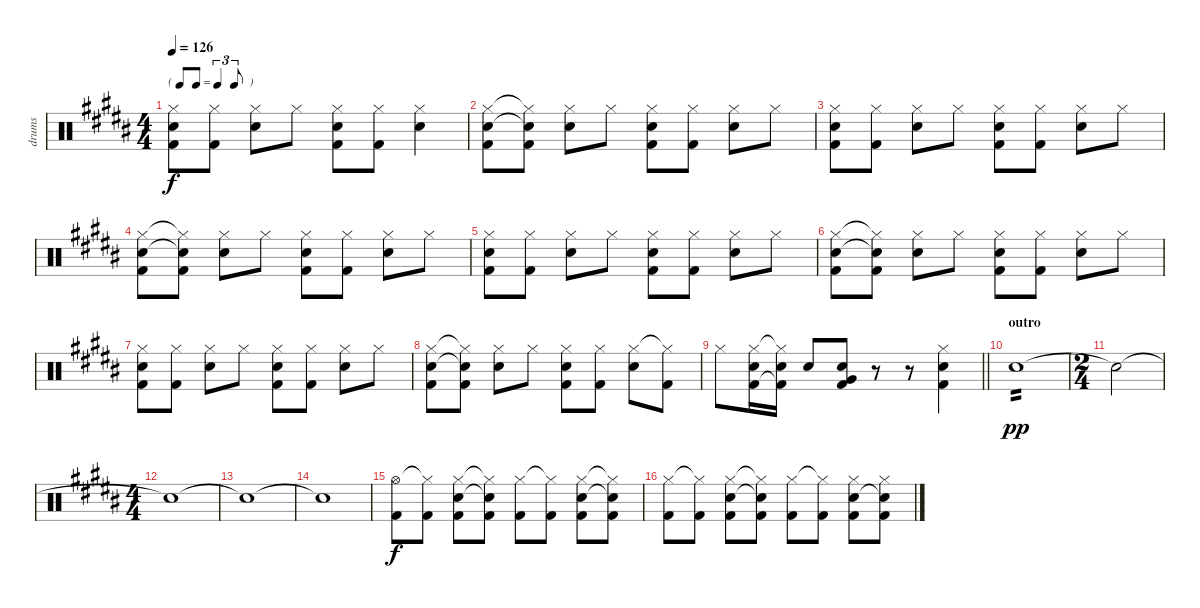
\track ("drums" "drums") {instrument percussion}
\staff {score}
\articulation defaults
\ts (4 4)
\tf triplet8th
\tempo 126
\clef neutral
\ks b
("Hi-Hat (closed)" "Electric Snare (hit)" "Kick (hit) 2").8{dy f} ("Hi-Hat (closed)" "Kick (hit) 2").8 ("Hi-Hat (closed)" "Electric Snare (hit)").8 "Hi-Hat (closed)".8 ("Hi-Hat (closed)" "Electric Snare (hit)" "Kick (hit) 2").8 ("Hi-Hat (closed)" "Kick (hit) 2").8 ("Hi-Hat (closed)" "Electric Snare (hit)").4 |
("Hi-Hat (closed)" "Electric Snare (hit)" "Kick (hit) 2").8 ("Hi-Hat (closed)"{t} "Snare (hit)"{t} "Kick (hit) 2").8 ("Hi-Hat (closed)" "Electric Snare (hit)").8 "Hi-Hat (closed)".8 ("Hi-Hat (closed)" "Electric Snare (hit)" "Kick (hit) 2").8 ("Hi-Hat (closed)" "Kick (hit) 2").8 ("Hi-Hat (closed)" "Electric Snare (hit)").8 "Hi-Hat (closed)".8 |
("Hi-Hat (closed)" "Electric Snare (hit)" "Kick (hit) 2").8 ("Hi-Hat (closed)" "Kick (hit) 2").8 ("Hi-Hat (closed)" "Electric Snare (hit)").8 "Hi-Hat (closed)".8 ("Hi-Hat (closed)" "Electric Snare (hit)" "Kick (hit) 2").8 ("Hi-Hat (closed)" "Kick (hit) 2").8 ("Hi-Hat (closed)" "Electric Snare (hit)").8 "Hi-Hat (closed)".8 |
("Hi-Hat (closed)" "Electric Snare (hit)" "Kick (hit) 2").8 ("Hi-Hat (closed)"{t} "Snare (hit)"{t} "Kick (hit) 2").8 ("Hi-Hat (closed)" "Electric Snare (hit)").8 "Hi-Hat (closed)".8 ("Hi-Hat (closed)" "Electric Snare (hit)" "Kick (hit) 2").8 ("Hi-Hat (closed)" "Kick (hit) 2").8 ("Hi-Hat (closed)" "Electric Snare (hit)").8 "Hi-Hat (closed)".8 |
("Hi-Hat (closed)" "Electric Snare (hit)" "Kick (hit) 2").8 ("Hi-Hat (closed)" "Kick (hit) 2").8 ("Hi-Hat (closed)" "Electric Snare (hit)").8 "Hi-Hat (closed)".8 ("Hi-Hat (closed)" "Electric Snare (hit)" "Kick (hit) 2").8 ("Hi-Hat (closed)" "Kick (hit) 2").8 ("Hi-Hat (closed)" "Electric Snare (hit)").8 "Hi-Hat (closed)".8 |
("Hi-Hat (closed)" "Electric Snare (hit)" "Kick (hit) 2").8 ("Hi-Hat (closed)"{t} "Snare (hit)"{t} "Kick (hit) 2").8 ("Hi-Hat (closed)" "Electric Snare (hit)").8 "Hi-Hat (closed)".8 ("Hi-Hat (closed)" "Electric Snare (hit)" "Kick (hit) 2").8 ("Hi-Hat (closed)" "Kick (hit) 2").8 ("Hi-Hat (closed)" "Electric Snare (hit)").8 "Hi-Hat (closed)".8 |
("Hi-Hat (closed)" "Electric Snare (hit)" "Kick (hit) 2").8 ("Hi-Hat (closed)" "Kick (hit) 2").8 ("Hi-Hat (closed)" "Electric Snare (hit)").8 "Hi-Hat (closed)".8 ("Hi-Hat (closed)" "Electric Snare (hit)" "Kick (hit) 2").8 ("Hi-Hat (closed)" "Kick (hit) 2").8 ("Hi-Hat (closed)" "Electric Snare (hit)").8 "Hi-Hat (closed)".8 |
("Hi-Hat (closed)" "Electric Snare (hit)" "Kick (hit) 2").8 ("Hi-Hat (closed)"{t} "Snare (hit)"{t} "Kick (hit) 2").8 ("Hi-Hat (closed)" "Electric Snare (hit)").8 "Hi-Hat (closed)".8 ("Hi-Hat (closed)" "Electric Snare (hit)" "Kick (hit) 2").8 ("Hi-Hat (closed)" "Kick (hit) 2").8 ("Hi-Hat (closed)" "Electric Snare (hit)").8 ("Hi-Hat (closed)"{t} "Kick (hit) 2").8 |
\barLineRight lightlight "Hi-Hat (closed)".8
("Hi-Hat (closed)" "Electric Snare (hit)" "Kick (hit) 2").16 ("Hi-Hat (closed)"{t} "Electric Snare (hit)" "Kick (hit) 2"{t}).16 "Electric Snare (hit)".8 ("Electric Snare (hit)" "Very Low Tom (hit)" "Kick (hit) 2").8 r.8 r.8 ("Hi-Hat (closed)" "Electric Snare (hit)" "Kick (hit) 2").4 |
\section ("" "outro")
"Electric Snare (hit)".1{tp 2 dy pp} |
\ts (2 4)
"Electric Snare (hit)"{t}.2 |
\ts (4 4)
"Electric Snare (hit)"{t}.1 |
"Snare (hit)"{t}.1 |
"Snare (hit)"{t}.1 |
("Hi-Hat (open)" "Kick (hit) 2").8{dy f} ("Hi-Hat (closed)"{t} "Kick (hit) 2").8 ("Hi-Hat (closed)" "Electric Snare (hit)" "Kick (hit) 2").8 ("Hi-Hat (closed)"{t} "Snare (hit)"{t} "Kick (hit) 2").8 ("Hi-Hat (closed)" "Kick (hit) 2").8 ("Hi-Hat (closed)"{t} "Kick (hit) 2").8 ("Hi-Hat (closed)" "Electric Snare (hit)" "Kick (hit) 2").8 ("Hi-Hat (closed)"{t} "Snare (hit)"{t} "Kick (hit) 2").8 |
("Hi-Hat (closed)" "Kick (hit) 2").8 ("Hi-Hat (closed)"{t} "Kick (hit) 2").8 ("Hi-Hat (closed)" "Electric Snare (hit)" "Kick (hit) 2").8 ("Hi-Hat (closed)"{t} "Snare (hit)"{t} "Kick (hit) 2").8 ("Hi-Hat (closed)" "Kick (hit) 2").8 ("Hi-Hat (closed)"{t} "Kick (hit) 2").8 ("Hi-Hat (closed)" "Electric Snare (hit)" "Kick (hit) 2").8 ("Hi-Hat (closed)" "Snare (hit)"{t} "Kick (hit) 2").8
